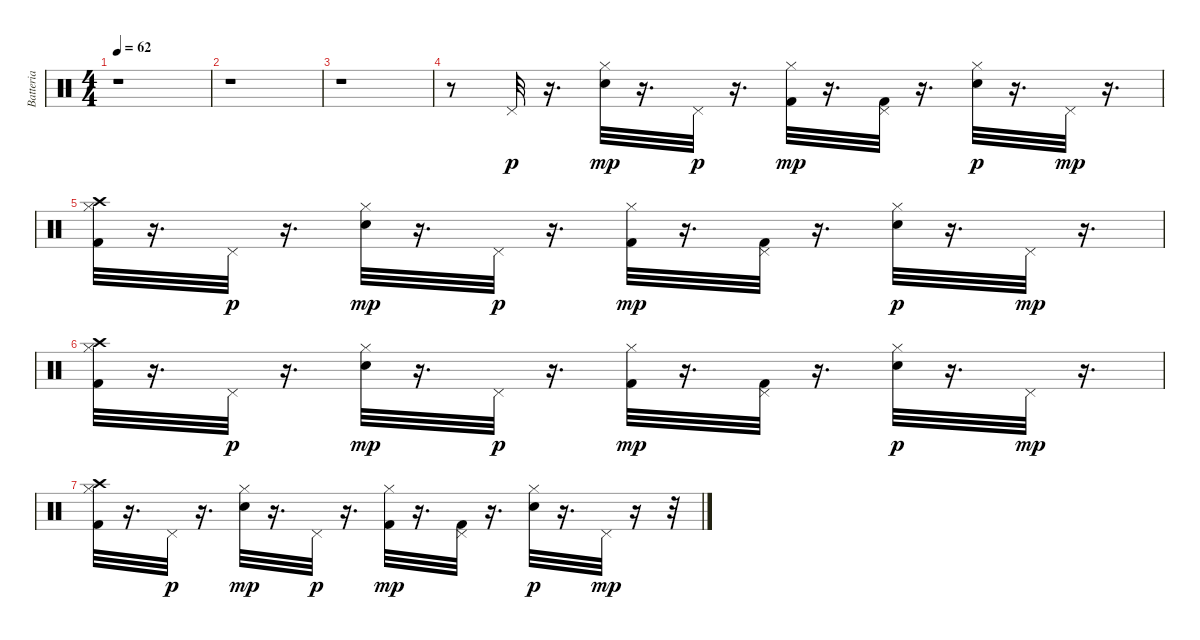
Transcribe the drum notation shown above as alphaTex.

\track ("Batteria" "Batteria") {instrument percussion}
\staff {score}
\articulation defaults
\ts (4 4)
\tempo 62
\clef neutral
\ks c
r.1{dy f} |
r.1 |
r.1 |
r.8 "Pedal Hi-Hat (hit)".32{dy p} r.16{d} ("Snare (hit) 2" "Hi-Hat (closed)").32{dy mp} r.16{d} "Pedal Hi-Hat (hit)".32{dy p} r.16{d} ("Kick (hit) 2" "Hi-Hat (closed)").32{dy mp} r.16{d} ("Kick (hit) 2" "Pedal Hi-Hat (hit)").32 r.16{d} ("Snare (hit) 2" "Hi-Hat (closed)").32{dy p} r.16{d} "Pedal Hi-Hat (hit)".32{dy mp} r.16{d} |
("Kick (hit) 2" "Crash high (hit)" "Hi-Hat (closed)").32 r.16{d} "Pedal Hi-Hat (hit)".32{dy p} r.16{d} ("Snare (hit) 2" "Hi-Hat (closed)").32{dy mp} r.16{d} "Pedal Hi-Hat (hit)".32{dy p} r.16{d} ("Kick (hit) 2" "Hi-Hat (closed)").32{dy mp} r.16{d} ("Kick (hit) 2" "Pedal Hi-Hat (hit)").32 r.16{d} ("Snare (hit) 2" "Hi-Hat (closed)").32{dy p} r.16{d} "Pedal Hi-Hat (hit)".32{dy mp} r.16{d} |
("Kick (hit) 2" "Crash high (hit)" "Hi-Hat (closed)").32 r.16{d} "Pedal Hi-Hat (hit)".32{dy p} r.16{d} ("Snare (hit) 2" "Hi-Hat (closed)").32{dy mp} r.16{d} "Pedal Hi-Hat (hit)".32{dy p} r.16{d} ("Kick (hit) 2" "Hi-Hat (closed)").32{dy mp} r.16{d} ("Kick (hit) 2" "Pedal Hi-Hat (hit)").32 r.16{d} ("Snare (hit) 2" "Hi-Hat (closed)").32{dy p} r.16{d} "Pedal Hi-Hat (hit)".32{dy mp} r.16{d} |
("Kick (hit) 2" "Crash high (hit)" "Hi-Hat (closed)").32 r.16{d} "Pedal Hi-Hat (hit)".32{dy p} r.16{d} ("Snare (hit) 2" "Hi-Hat (closed)").32{dy mp} r.16{d} "Pedal Hi-Hat (hit)".32{dy p} r.16{d} ("Kick (hit) 2" "Hi-Hat (closed)").32{dy mp} r.16{d} ("Kick (hit) 2" "Pedal Hi-Hat (hit)").32 r.16{d} ("Snare (hit) 2" "Hi-Hat (closed)").32{dy p} r.16{d} "Pedal Hi-Hat (hit)".32{dy mp} r.16 r.32
